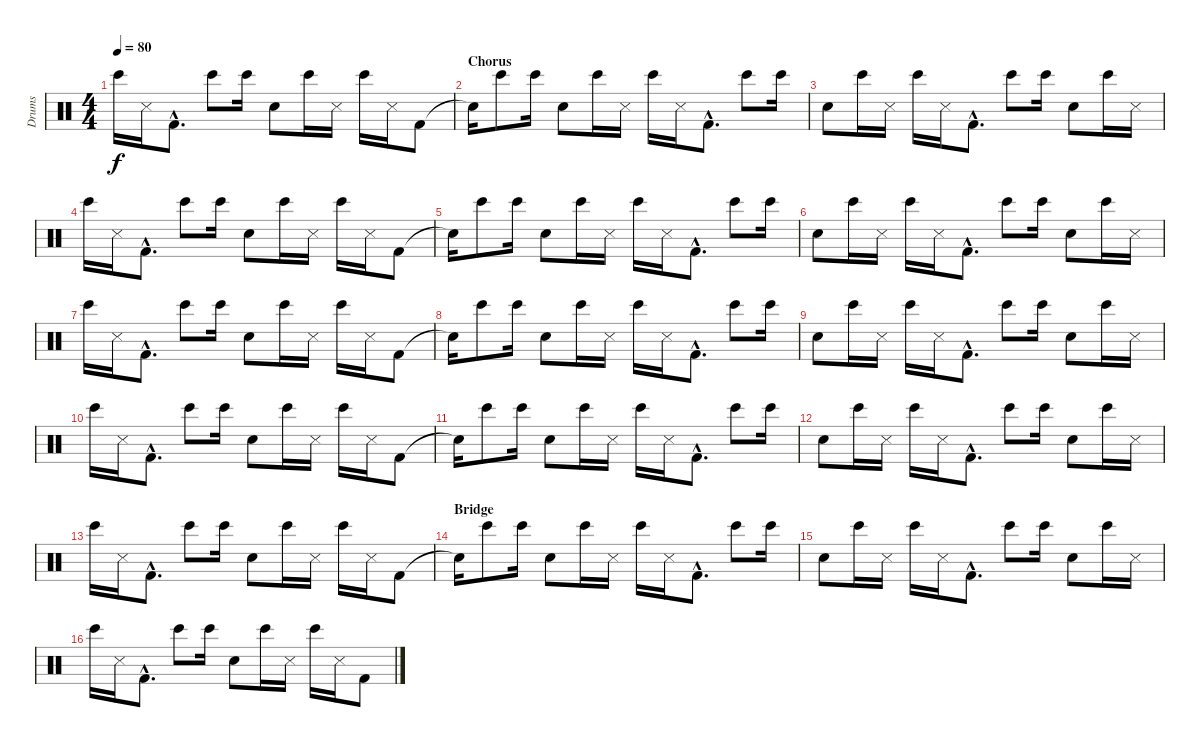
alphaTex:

\track ("Drums" "Drums") {instrument percussion}
\staff {score}
\articulation defaults
\ts (4 4)
\tempo 80
\clef neutral
\ks c "Bongo High (hit)".16{dy f} "Snare (side stick) 3".16 "Kick (hit) 2"{hac}.8{d} "Bongo High (hit)".8 "Bongo High (hit)".16 "Electric Snare (hit)".8 "Bongo High (hit)".16 "Snare (side stick) 3".16 "Bongo High (hit)".16 "Snare (side stick) 3".16 "Kick (hit) 2".8
|
\section ("" "Chorus")
"Snare (hit)"{t}.16 "Bongo High (hit)".8 "Bongo High (hit)".16 "Electric Snare (hit)".8 "Bongo High (hit)".16 "Snare (side stick) 3".16 "Bongo High (hit)".16 "Snare (side stick) 3".16 "Kick (hit) 2"{hac}.8{d} "Bongo High (hit)".8 "Bongo High (hit)".16 |
"Electric Snare (hit)".8 "Bongo High (hit)".16 "Snare (side stick) 3".16 "Bongo High (hit)".16 "Snare (side stick) 3".16 "Kick (hit) 2"{hac}.8{d} "Bongo High (hit)".8 "Bongo High (hit)".16 "Electric Snare (hit)".8 "Bongo High (hit)".16 "Snare (side stick) 3".16 |
"Bongo High (hit)".16 "Snare (side stick) 3".16 "Kick (hit) 2"{hac}.8{d} "Bongo High (hit)".8 "Bongo High (hit)".16 "Electric Snare (hit)".8 "Bongo High (hit)".16 "Snare (side stick) 3".16 "Bongo High (hit)".16 "Snare (side stick) 3".16 "Kick (hit) 2".8 |
"Snare (hit)"{t}.16 "Bongo High (hit)".8 "Bongo High (hit)".16 "Electric Snare (hit)".8 "Bongo High (hit)".16 "Snare (side stick) 3".16 "Bongo High (hit)".16 "Snare (side stick) 3".16 "Kick (hit) 2"{hac}.8{d} "Bongo High (hit)".8 "Bongo High (hit)".16 |
"Electric Snare (hit)".8 "Bongo High (hit)".16 "Snare (side stick) 3".16 "Bongo High (hit)".16 "Snare (side stick) 3".16 "Kick (hit) 2"{hac}.8{d} "Bongo High (hit)".8 "Bongo High (hit)".16 "Electric Snare (hit)".8 "Bongo High (hit)".16 "Snare (side stick) 3".16 |
"Bongo High (hit)".16 "Snare (side stick) 3".16 "Kick (hit) 2"{hac}.8{d} "Bongo High (hit)".8 "Bongo High (hit)".16 "Electric Snare (hit)".8 "Bongo High (hit)".16 "Snare (side stick) 3".16 "Bongo High (hit)".16 "Snare (side stick) 3".16 "Kick (hit) 2".8 |
"Snare (hit)"{t}.16 "Bongo High (hit)".8 "Bongo High (hit)".16 "Electric Snare (hit)".8 "Bongo High (hit)".16 "Snare (side stick) 3".16 "Bongo High (hit)".16 "Snare (side stick) 3".16 "Kick (hit) 2"{hac}.8{d} "Bongo High (hit)".8 "Bongo High (hit)".16 |
"Electric Snare (hit)".8 "Bongo High (hit)".16 "Snare (side stick) 3".16 "Bongo High (hit)".16 "Snare (side stick) 3".16 "Kick (hit) 2"{hac}.8{d} "Bongo High (hit)".8 "Bongo High (hit)".16 "Electric Snare (hit)".8 "Bongo High (hit)".16 "Snare (side stick) 3".16 |
"Bongo High (hit)".16 "Snare (side stick) 3".16 "Kick (hit) 2"{hac}.8{d} "Bongo High (hit)".8 "Bongo High (hit)".16 "Electric Snare (hit)".8 "Bongo High (hit)".16 "Snare (side stick) 3".16 "Bongo High (hit)".16 "Snare (side stick) 3".16 "Kick (hit) 2".8 |
"Snare (hit)"{t}.16 "Bongo High (hit)".8 "Bongo High (hit)".16 "Electric Snare (hit)".8 "Bongo High (hit)".16 "Snare (side stick) 3".16 "Bongo High (hit)".16 "Snare (side stick) 3".16 "Kick (hit) 2"{hac}.8{d} "Bongo High (hit)".8 "Bongo High (hit)".16 |
"Electric Snare (hit)".8 "Bongo High (hit)".16 "Snare (side stick) 3".16 "Bongo High (hit)".16 "Snare (side stick) 3".16 "Kick (hit) 2"{hac}.8{d} "Bongo High (hit)".8 "Bongo High (hit)".16 "Electric Snare (hit)".8 "Bongo High (hit)".16 "Snare (side stick) 3".16 |
"Bongo High (hit)".16 "Snare (side stick) 3".16 "Kick (hit) 2"{hac}.8{d} "Bongo High (hit)".8 "Bongo High (hit)".16 "Electric Snare (hit)".8 "Bongo High (hit)".16 "Snare (side stick) 3".16 "Bongo High (hit)".16 "Snare (side stick) 3".16 "Kick (hit) 2".8 |
\section ("" "Bridge")
"Snare (hit)"{t}.16 "Bongo High (hit)".8 "Bongo High (hit)".16 "Electric Snare (hit)".8 "Bongo High (hit)".16 "Snare (side stick) 3".16 "Bongo High (hit)".16 "Snare (side stick) 3".16 "Kick (hit) 2"{hac}.8{d} "Bongo High (hit)".8 "Bongo High (hit)".16 |
"Electric Snare (hit)".8 "Bongo High (hit)".16 "Snare (side stick) 3".16 "Bongo High (hit)".16 "Snare (side stick) 3".16 "Kick (hit) 2"{hac}.8{d} "Bongo High (hit)".8 "Bongo High (hit)".16 "Electric Snare (hit)".8 "Bongo High (hit)".16 "Snare (side stick) 3".16 |
"Bongo High (hit)".16 "Snare (side stick) 3".16 "Kick (hit) 2"{hac}.8{d} "Bongo High (hit)".8 "Bongo High (hit)".16 "Electric Snare (hit)".8 "Bongo High (hit)".16 "Snare (side stick) 3".16 "Bongo High (hit)".16 "Snare (side stick) 3".16 "Kick (hit) 2".8
